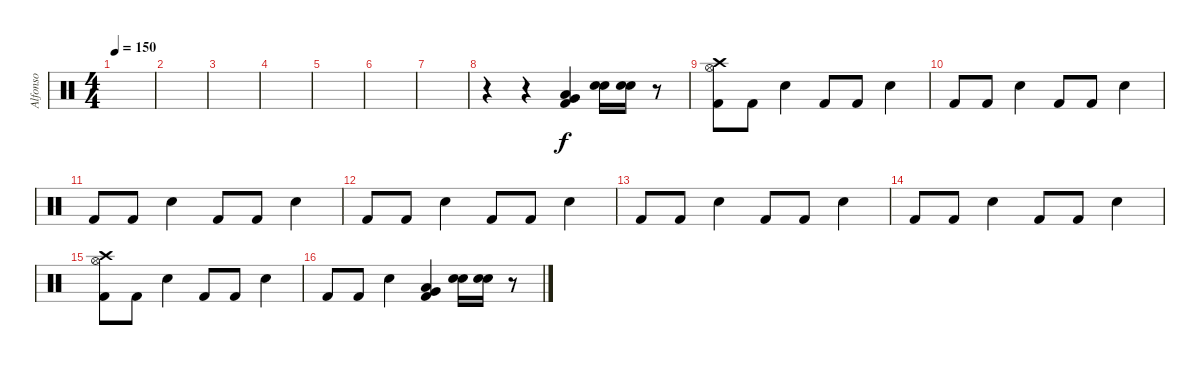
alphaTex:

\track ("Alfonso" "Alfonso") {instrument percussion}
\staff {score}
\articulation defaults
\ts (4 4)
\tempo 150
\clef neutral
\ks c
|
|
|
|
|
|
|
r.4 r.4 ("Kick (hit) 2" "Very Low Tom (hit)" "Low Floor Tom (hit)").4 ("Snare (hit) 2" "Electric Snare (hit)").16 ("Snare (hit) 2" "Electric Snare (hit)").16 r.8 |
("Crash high (hit)" "Hi-Hat (open)" "Kick (hit) 2").8 "Kick (hit) 2".8 "Electric Snare (hit)".4 "Kick (hit) 2".8 "Kick (hit) 2".8 "Electric Snare (hit)".4 |
"Kick (hit) 2".8 "Kick (hit) 2".8 "Electric Snare (hit)".4 "Kick (hit) 2".8 "Kick (hit) 2".8 "Electric Snare (hit)".4 |
"Kick (hit) 2".8 "Kick (hit) 2".8 "Electric Snare (hit)".4 "Kick (hit) 2".8 "Kick (hit) 2".8 "Electric Snare (hit)".4 |
"Kick (hit) 2".8 "Kick (hit) 2".8 "Electric Snare (hit)".4 "Kick (hit) 2".8 "Kick (hit) 2".8 "Electric Snare (hit)".4 |
"Kick (hit) 2".8 "Kick (hit) 2".8 "Electric Snare (hit)".4 "Kick (hit) 2".8 "Kick (hit) 2".8 "Electric Snare (hit)".4 |
"Kick (hit) 2".8 "Kick (hit) 2".8 "Electric Snare (hit)".4 "Kick (hit) 2".8 "Kick (hit) 2".8 "Electric Snare (hit)".4 |
("Crash high (hit)" "Hi-Hat (open)" "Kick (hit) 2").8 "Kick (hit) 2".8 "Electric Snare (hit)".4 "Kick (hit) 2".8 "Kick (hit) 2".8 "Electric Snare (hit)".4 |
"Kick (hit) 2".8 "Kick (hit) 2".8 "Electric Snare (hit)".4 ("Kick (hit) 2" "Very Low Tom (hit)" "Low Floor Tom (hit)").4 ("Snare (hit) 2" "Electric Snare (hit)").16 ("Snare (hit) 2" "Electric Snare (hit)").16 r.8
